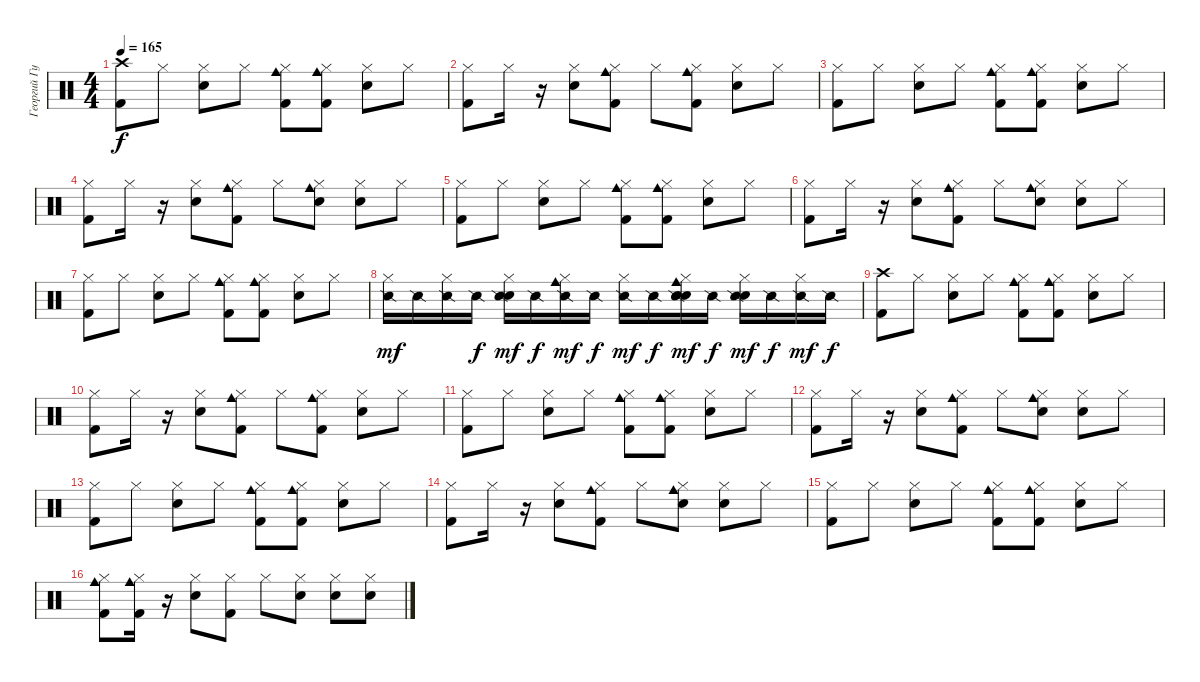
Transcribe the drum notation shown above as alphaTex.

\track ("Георгий Гурьянов" "Георгий Гу") {instrument percussion}
\staff {score}
\articulation defaults
\ts (4 4)
\tempo 165
\clef neutral
\ks c
("Crash high (hit)" "Kick (hit) 2").8{dy f} "Hi-Hat (closed)".8 ("Hi-Hat (closed)" "Snare (hit) 2").8 "Hi-Hat (closed)".8 ("Hi-Hat (closed)" "Cowbell medium (hit)" "Kick (hit) 2").8 ("Hi-Hat (closed)" "Cowbell medium (hit)" "Kick (hit) 2").8 ("Hi-Hat (closed)" "Snare (hit) 2").8 "Hi-Hat (closed)".8 |
("Hi-Hat (closed)" "Kick (hit) 2").8 "Hi-Hat (closed)".16 r.16 ("Hi-Hat (closed)" "Snare (hit) 2").8 ("Hi-Hat (closed)" "Kick (hit) 2" "Cowbell medium (hit)").8 "Hi-Hat (closed)".8 ("Hi-Hat (closed)" "Kick (hit) 2" "Cowbell medium (hit)").8 ("Hi-Hat (closed)" "Snare (hit) 2").8 "Hi-Hat (closed)".8 |
("Hi-Hat (closed)" "Kick (hit) 2").8 "Hi-Hat (closed)".8 ("Hi-Hat (closed)" "Snare (hit) 2").8 "Hi-Hat (closed)".8 ("Hi-Hat (closed)" "Cowbell medium (hit)" "Kick (hit) 2").8 ("Hi-Hat (closed)" "Cowbell medium (hit)" "Kick (hit) 2").8 ("Hi-Hat (closed)" "Snare (hit) 2").8 "Hi-Hat (closed)".8 |
("Hi-Hat (closed)" "Kick (hit) 2").8 "Hi-Hat (closed)".16 r.16 ("Hi-Hat (closed)" "Snare (hit) 2").8 ("Hi-Hat (closed)" "Kick (hit) 2" "Cowbell medium (hit)").8 "Hi-Hat (closed)".8 ("Hi-Hat (closed)" "Hand Clap (hit)" "Cowbell medium (hit)").8 ("Hi-Hat (closed)" "Snare (hit) 2").8 "Hi-Hat (closed)".8 |
("Hi-Hat (closed)" "Kick (hit) 2").8 "Hi-Hat (closed)".8 ("Hi-Hat (closed)" "Snare (hit) 2").8 "Hi-Hat (closed)".8 ("Hi-Hat (closed)" "Cowbell medium (hit)" "Kick (hit) 2").8 ("Hi-Hat (closed)" "Cowbell medium (hit)" "Kick (hit) 2").8 ("Hi-Hat (closed)" "Snare (hit) 2").8 "Hi-Hat (closed)".8 |
("Hi-Hat (closed)" "Kick (hit) 2").8 "Hi-Hat (closed)".16 r.16 ("Hi-Hat (closed)" "Snare (hit) 2").8 ("Hi-Hat (closed)" "Kick (hit) 2" "Cowbell medium (hit)").8 "Hi-Hat (closed)".8 ("Hi-Hat (closed)" "Hand Clap (hit)" "Cowbell medium (hit)").8 ("Hi-Hat (closed)" "Snare (hit) 2").8 "Hi-Hat (closed)".8 |
("Hi-Hat (closed)" "Kick (hit) 2").8 "Hi-Hat (closed)".8 ("Hi-Hat (closed)" "Snare (hit) 2").8 "Hi-Hat (closed)".8 ("Hi-Hat (closed)" "Cowbell medium (hit)" "Kick (hit) 2").8 ("Hi-Hat (closed)" "Cowbell medium (hit)" "Kick (hit) 2").8 ("Hi-Hat (closed)" "Snare (hit) 2").8 "Hi-Hat (closed)".8 |
("Hi-Hat (closed)" "Snare (side stick) 2").16{dy mf} "Snare (side stick) 2".16 ("Hi-Hat (closed)" "Snare (side stick) 2").16 "Snare (side stick) 2".16{dy f} ("Snare (hit) 2" "Hi-Hat (closed)" "Snare (side stick) 2").16{dy mf} "Snare (side stick) 2".16{dy f} ("Cowbell medium (hit)" "Hi-Hat (closed)" "Snare (side stick) 2").16{dy mf} "Snare (side stick) 2".16{dy f} ("Hi-Hat (closed)" "Snare (side stick) 2").16{dy mf} "Snare (side stick) 2".16{dy f} ("Cowbell medium (hit)" "Hi-Hat (closed)" "Hand Clap (hit)" "Snare (side stick) 2" "Hand Clap (hit)").16{dy mf} "Snare (side stick) 2".16{dy f} ("Hi-Hat (closed)" "Snare (hit) 2" "Snare (side stick) 2").16{dy mf} "Snare (side stick) 2".16{dy f} ("Hi-Hat (closed)" "Snare (side stick) 2").16{dy mf} "Snare (side stick) 2".16{dy f} |
("Crash high (hit)" "Kick (hit) 2").8 "Hi-Hat (closed)".8 ("Hi-Hat (closed)" "Snare (hit) 2").8 "Hi-Hat (closed)".8 ("Hi-Hat (closed)" "Cowbell medium (hit)" "Kick (hit) 2").8 ("Hi-Hat (closed)" "Cowbell medium (hit)" "Kick (hit) 2").8 ("Hi-Hat (closed)" "Snare (hit) 2").8 "Hi-Hat (closed)".8 |
("Hi-Hat (closed)" "Kick (hit) 2").8 "Hi-Hat (closed)".16 r.16 ("Hi-Hat (closed)" "Snare (hit) 2").8 ("Hi-Hat (closed)" "Kick (hit) 2" "Cowbell medium (hit)").8 "Hi-Hat (closed)".8 ("Hi-Hat (closed)" "Kick (hit) 2" "Cowbell medium (hit)").8 ("Hi-Hat (closed)" "Snare (hit) 2").8 "Hi-Hat (closed)".8 |
("Hi-Hat (closed)" "Kick (hit) 2").8 "Hi-Hat (closed)".8 ("Hi-Hat (closed)" "Snare (hit) 2").8 "Hi-Hat (closed)".8 ("Hi-Hat (closed)" "Cowbell medium (hit)" "Kick (hit) 2").8 ("Hi-Hat (closed)" "Cowbell medium (hit)" "Kick (hit) 2").8 ("Hi-Hat (closed)" "Snare (hit) 2").8 "Hi-Hat (closed)".8 |
("Hi-Hat (closed)" "Kick (hit) 2").8 "Hi-Hat (closed)".16 r.16 ("Hi-Hat (closed)" "Snare (hit) 2").8 ("Hi-Hat (closed)" "Kick (hit) 2" "Cowbell medium (hit)").8 "Hi-Hat (closed)".8 ("Hi-Hat (closed)" "Hand Clap (hit)" "Cowbell medium (hit)").8 ("Hi-Hat (closed)" "Snare (hit) 2").8 "Hi-Hat (closed)".8 |
("Hi-Hat (closed)" "Kick (hit) 2").8 "Hi-Hat (closed)".8 ("Hi-Hat (closed)" "Snare (hit) 2").8 "Hi-Hat (closed)".8 ("Hi-Hat (closed)" "Cowbell medium (hit)" "Kick (hit) 2").8 ("Hi-Hat (closed)" "Cowbell medium (hit)" "Kick (hit) 2").8 ("Hi-Hat (closed)" "Snare (hit) 2").8 "Hi-Hat (closed)".8 |
("Hi-Hat (closed)" "Kick (hit) 2").8 "Hi-Hat (closed)".16 r.16 ("Hi-Hat (closed)" "Snare (hit) 2").8 ("Hi-Hat (closed)" "Kick (hit) 2" "Cowbell medium (hit)").8 "Hi-Hat (closed)".8 ("Hi-Hat (closed)" "Hand Clap (hit)" "Cowbell medium (hit)").8 ("Hi-Hat (closed)" "Snare (hit) 2").8 "Hi-Hat (closed)".8 |
("Hi-Hat (closed)" "Kick (hit) 2").8 "Hi-Hat (closed)".8 ("Hi-Hat (closed)" "Snare (hit) 2").8 "Hi-Hat (closed)".8 ("Hi-Hat (closed)" "Cowbell medium (hit)" "Kick (hit) 2").8 ("Hi-Hat (closed)" "Cowbell medium (hit)" "Kick (hit) 2").8 ("Hi-Hat (closed)" "Snare (hit) 2").8 "Hi-Hat (closed)".8 |
("Cowbell medium (hit)" "Hi-Hat (closed)" "Kick (hit) 2").8 ("Cowbell medium (hit)" "Kick (hit) 2" "Hi-Hat (closed)").16 r.16 ("Hi-Hat (closed)" "Snare (hit) 2").8 ("Hi-Hat (closed)" "Kick (hit) 2").8 "Hi-Hat (closed)".8 ("Hi-Hat (closed)" "Snare (hit) 2").8 ("Hi-Hat (closed)" "Snare (hit) 2").8 ("Snare (hit) 2" "Hi-Hat (closed)").8
